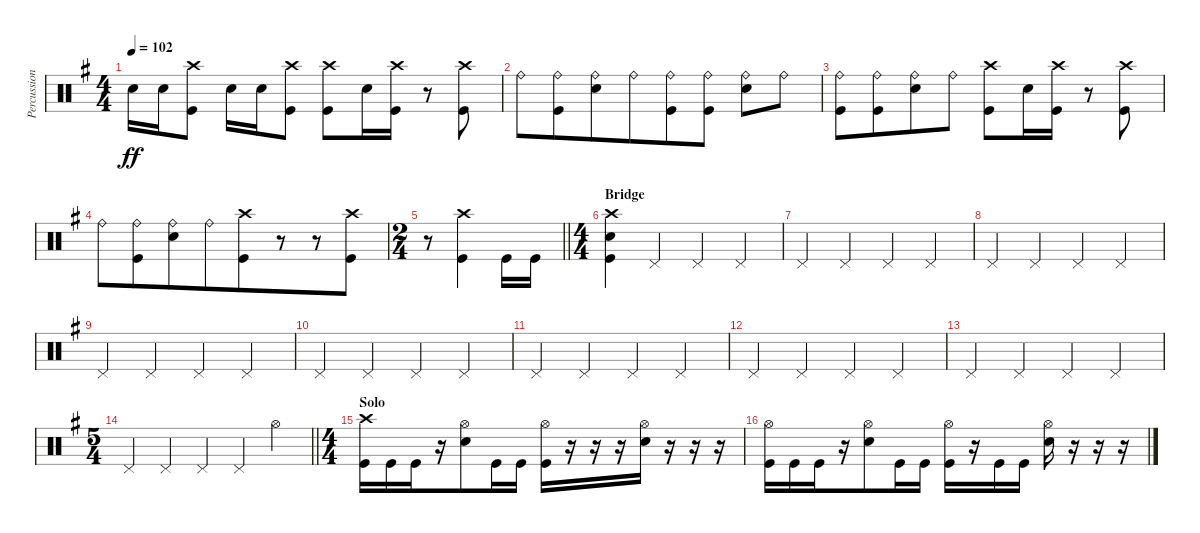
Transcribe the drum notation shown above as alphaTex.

\track ("Percussion" "Percussion") {instrument percussion}
\staff {score}
\articulation defaults
\ts (4 4)
\tempo 102
\clef neutral
\ks g "Electric Snare (hit)".16{dy ff} "Electric Snare (hit)".16
("Kick (hit)" "Crash high (hit)").8 "Electric Snare (hit)".16 "Electric Snare (hit)".16 ("Kick (hit)" "Crash high (hit)").8 ("Kick (hit)" "Crash high (hit)").8{beam merge} "Electric Snare (hit)".16{beam merge} ("Kick (hit)" "Crash high (hit)").16 r.8 ("Kick (hit)" "Crash high (hit)").8 |
"Ride (bell)".8 ("Ride (bell)" "Kick (hit)").8{beam merge} ("Ride (bell)" "Electric Snare (hit)").8{beam merge} "Ride (bell)".8{beam merge} ("Ride (bell)" "Kick (hit)").8{beam merge} ("Ride (bell)" "Kick (hit)").8 ("Ride (bell)" "Electric Snare (hit)").8{beam merge} "Ride (bell)".8 |
("Ride (bell)" "Kick (hit)").8 ("Ride (bell)" "Kick (hit)").8{beam merge} ("Ride (bell)" "Electric Snare (hit)").8{beam merge} "Ride (bell)".8 ("Kick (hit)" "Crash high (hit)").8{beam merge} "Electric Snare (hit)".16{beam merge} ("Kick (hit)" "Crash high (hit)").16 r.8 ("Kick (hit)" "Crash high (hit)").8 |
"Ride (bell)".8 ("Ride (bell)" "Kick (hit)").8{beam merge} ("Ride (bell)" "Electric Snare (hit)").8{beam merge} "Ride (bell)".8{beam merge} ("Kick (hit)" "Crash high (hit)").8{beam merge} r.8 r.8{beam merge} ("Kick (hit)" "Crash high (hit)").8 |
\ts (2 4)
\barLineRight lightlight
r.8{beam merge} ("Kick (hit)" "Crash high (hit)").4{beam merge} "Kick (hit)".16 "Kick (hit)".16 |
\ts (4 4)
\section ("" "Bridge")
("Kick (hit)" "Electric Snare (hit)" "Crash high (hit)").4 "Pedal Hi-Hat (hit)".4 "Pedal Hi-Hat (hit)".4 "Pedal Hi-Hat (hit)".4 |
"Pedal Hi-Hat (hit)".4{beam merge} "Pedal Hi-Hat (hit)".4 "Pedal Hi-Hat (hit)".4{beam merge} "Pedal Hi-Hat (hit)".4 |
"Pedal Hi-Hat (hit)".4 "Pedal Hi-Hat (hit)".4 "Pedal Hi-Hat (hit)".4 "Pedal Hi-Hat (hit)".4 |
"Pedal Hi-Hat (hit)".4 "Pedal Hi-Hat (hit)".4{beam merge} "Pedal Hi-Hat (hit)".4 "Pedal Hi-Hat (hit)".4 |
"Pedal Hi-Hat (hit)".4{beam merge} "Pedal Hi-Hat (hit)".4{beam merge} "Pedal Hi-Hat (hit)".4 "Pedal Hi-Hat (hit)".4 |
"Pedal Hi-Hat (hit)".4 "Pedal Hi-Hat (hit)".4 "Pedal Hi-Hat (hit)".4 "Pedal Hi-Hat (hit)".4 |
"Pedal Hi-Hat (hit)".4 "Pedal Hi-Hat (hit)".4 "Pedal Hi-Hat (hit)".4 "Pedal Hi-Hat (hit)".4 |
"Pedal Hi-Hat (hit)".4{beam merge} "Pedal Hi-Hat (hit)".4 "Pedal Hi-Hat (hit)".4{beam merge} "Pedal Hi-Hat (hit)".4 |
\ts (5 4)
\barLineRight lightlight "Pedal Hi-Hat (hit)".4 "Pedal Hi-Hat (hit)".4 "Pedal Hi-Hat (hit)".4{beam merge} "Pedal Hi-Hat (hit)".4 "Hi-Hat (open)".4
|
\ts (4 4)
\section ("" "Solo")
("Kick (hit)" "Crash high (hit)").16{beam merge} "Kick (hit)".16 "Kick (hit)".16{beam merge} r.16 ("Electric Snare (hit)" "Hi-Hat (open)").8 "Kick (hit)".16{beam merge} "Kick (hit)".16 ("Kick (hit)" "Hi-Hat (open)").16{beam merge} r.16 r.16{beam merge} r.16 ("Electric Snare (hit)" "Hi-Hat (open)").16 r.16{beam merge} r.16{beam merge} r.16 |
("Kick (hit)" "Hi-Hat (open)").16{beam merge} "Kick (hit)".16 "Kick (hit)".16{beam merge} r.16 ("Electric Snare (hit)" "Hi-Hat (open)").8 "Kick (hit)".16{beam merge} "Kick (hit)".16 ("Kick (hit)" "Hi-Hat (open)").16{beam merge} r.16 "Kick (hit)".16{beam merge} "Kick (hit)".16 ("Electric Snare (hit)" "Hi-Hat (open)").16 r.16{beam merge} r.16{beam merge} r.16
